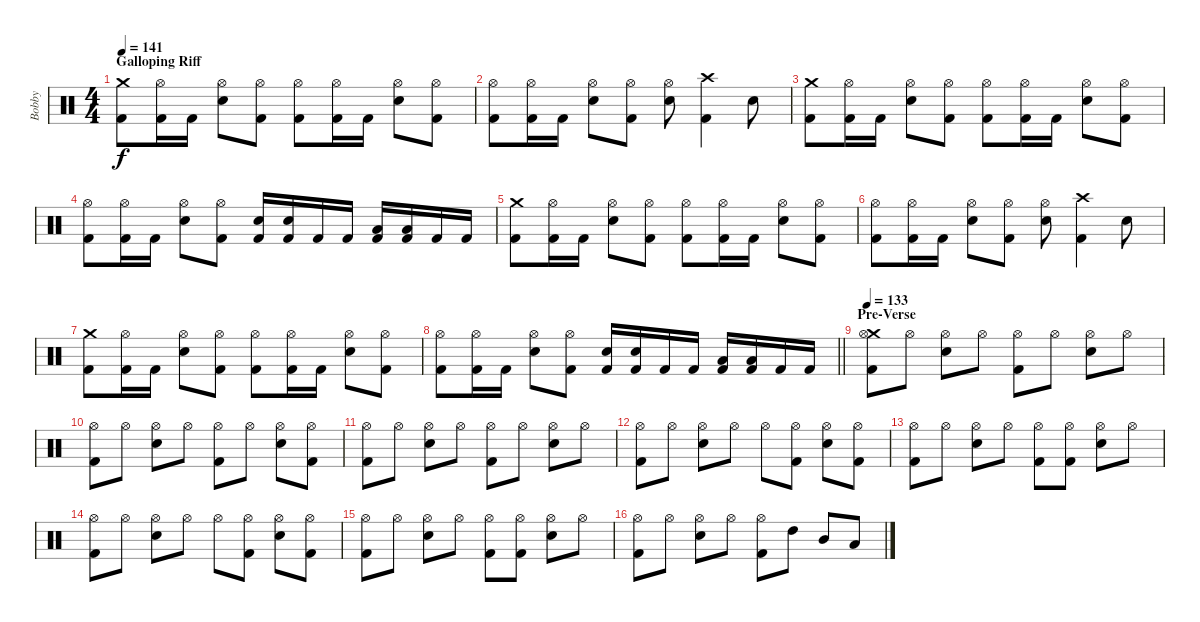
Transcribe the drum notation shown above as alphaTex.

\track ("Bobby" "Bobby") {instrument percussion}
\staff {score}
\articulation defaults
\ts (4 4)
\section ("" "Galloping Riff")
\tempo 140
\tempo 141
\clef neutral
\ks c
("Crash medium (hit)" "Kick (hit) 2").8{dy f} ("Hi-Hat (open)" "Kick (hit) 2").16 "Kick (hit) 2".16 ("Hi-Hat (open)" "Electric Snare (hit)").8 ("Hi-Hat (open)" "Kick (hit) 2").8 ("Hi-Hat (open)" "Kick (hit) 2").8 ("Hi-Hat (open)" "Kick (hit) 2").16 "Kick (hit) 2".16 ("Hi-Hat (open)" "Electric Snare (hit)").8 ("Hi-Hat (open)" "Kick (hit) 2").8 |
("Hi-Hat (open)" "Kick (hit) 2").8 ("Hi-Hat (open)" "Kick (hit) 2").16 "Kick (hit) 2".16 ("Hi-Hat (open)" "Electric Snare (hit)").8 ("Hi-Hat (open)" "Kick (hit) 2").8 ("Hi-Hat (open)" "Electric Snare (hit)").8 ("Crash high (hit)" "Kick (hit) 2").4 "Electric Snare (hit)".8 |
("Crash medium (hit)" "Kick (hit) 2").8 ("Hi-Hat (open)" "Kick (hit) 2").16 "Kick (hit) 2".16 ("Hi-Hat (open)" "Electric Snare (hit)").8 ("Hi-Hat (open)" "Kick (hit) 2").8 ("Hi-Hat (open)" "Kick (hit) 2").8 ("Hi-Hat (open)" "Kick (hit) 2").16 "Kick (hit) 2".16 ("Hi-Hat (open)" "Electric Snare (hit)").8 ("Hi-Hat (open)" "Kick (hit) 2").8 |
("Hi-Hat (open)" "Kick (hit) 2").8 ("Hi-Hat (open)" "Kick (hit) 2").16 "Kick (hit) 2".16 ("Hi-Hat (open)" "Electric Snare (hit)").8 ("Hi-Hat (open)" "Kick (hit) 2").8 ("Electric Snare (hit)" "Kick (hit) 2").16 ("Electric Snare (hit)" "Kick (hit) 2").16 "Kick (hit) 2".16 "Kick (hit) 2".16 ("Low Tom (hit)" "Kick (hit) 2").16 ("Low Tom (hit)" "Kick (hit) 2").16 "Kick (hit) 2".16 "Kick (hit) 2".16 |
("Crash medium (hit)" "Kick (hit) 2").8 ("Hi-Hat (open)" "Kick (hit) 2").16 "Kick (hit) 2".16 ("Hi-Hat (open)" "Electric Snare (hit)").8 ("Hi-Hat (open)" "Kick (hit) 2").8 ("Hi-Hat (open)" "Kick (hit) 2").8 ("Hi-Hat (open)" "Kick (hit) 2").16 "Kick (hit) 2".16 ("Hi-Hat (open)" "Electric Snare (hit)").8 ("Hi-Hat (open)" "Kick (hit) 2").8 |
("Hi-Hat (open)" "Kick (hit) 2").8 ("Hi-Hat (open)" "Kick (hit) 2").16 "Kick (hit) 2".16 ("Hi-Hat (open)" "Electric Snare (hit)").8 ("Hi-Hat (open)" "Kick (hit) 2").8 ("Hi-Hat (open)" "Electric Snare (hit)").8 ("Crash high (hit)" "Kick (hit) 2").4 "Electric Snare (hit)".8 |
("Crash medium (hit)" "Kick (hit) 2").8 ("Hi-Hat (open)" "Kick (hit) 2").16 "Kick (hit) 2".16 ("Hi-Hat (open)" "Electric Snare (hit)").8 ("Hi-Hat (open)" "Kick (hit) 2").8 ("Hi-Hat (open)" "Kick (hit) 2").8 ("Hi-Hat (open)" "Kick (hit) 2").16 "Kick (hit) 2".16 ("Hi-Hat (open)" "Electric Snare (hit)").8 ("Hi-Hat (open)" "Kick (hit) 2").8 |
\barLineRight lightlight
("Hi-Hat (open)" "Kick (hit) 2").8 ("Hi-Hat (open)" "Kick (hit) 2").16 "Kick (hit) 2".16 ("Hi-Hat (open)" "Electric Snare (hit)").8 ("Hi-Hat (open)" "Kick (hit) 2").8 ("Electric Snare (hit)" "Kick (hit) 2").16 ("Electric Snare (hit)" "Kick (hit) 2").16 "Kick (hit) 2".16 "Kick (hit) 2".16 ("Low Tom (hit)" "Kick (hit) 2").16 ("Low Tom (hit)" "Kick (hit) 2").16 "Kick (hit) 2".16 "Kick (hit) 2".16 |
\section ("" "Pre-Verse")
\tempo 130
\tempo 133
("Crash medium (hit)" "Hi-Hat (open)" "Kick (hit) 2").8 "Hi-Hat (open)".8 ("Hi-Hat (open)" "Electric Snare (hit)").8 "Hi-Hat (open)".8 ("Hi-Hat (open)" "Kick (hit) 2").8 "Hi-Hat (open)".8 ("Hi-Hat (open)" "Electric Snare (hit)").8 "Hi-Hat (open)".8 |
("Hi-Hat (open)" "Kick (hit) 2").8 "Hi-Hat (open)".8 ("Hi-Hat (open)" "Electric Snare (hit)").8 "Hi-Hat (open)".8 ("Hi-Hat (open)" "Kick (hit) 2").8 "Hi-Hat (open)".8 ("Hi-Hat (open)" "Electric Snare (hit)").8 ("Hi-Hat (open)" "Kick (hit) 2").8 |
("Hi-Hat (open)" "Kick (hit) 2").8 "Hi-Hat (open)".8 ("Hi-Hat (open)" "Electric Snare (hit)").8 "Hi-Hat (open)".8 ("Hi-Hat (open)" "Kick (hit) 2").8 "Hi-Hat (open)".8 ("Hi-Hat (open)" "Electric Snare (hit)").8 "Hi-Hat (open)".8 |
("Hi-Hat (open)" "Kick (hit) 2").8 "Hi-Hat (open)".8 ("Hi-Hat (open)" "Electric Snare (hit)").8 "Hi-Hat (open)".8 "Hi-Hat (open)".8 ("Hi-Hat (open)" "Kick (hit) 2").8 ("Hi-Hat (open)" "Electric Snare (hit)").8 ("Hi-Hat (open)" "Kick (hit) 2").8 |
("Hi-Hat (open)" "Kick (hit) 2").8 "Hi-Hat (open)".8 ("Hi-Hat (open)" "Electric Snare (hit)").8 "Hi-Hat (open)".8 ("Hi-Hat (open)" "Kick (hit) 2").8 ("Hi-Hat (open)" "Kick (hit) 2").8 ("Hi-Hat (open)" "Electric Snare (hit)").8 "Hi-Hat (open)".8 |
("Hi-Hat (open)" "Kick (hit) 2").8 "Hi-Hat (open)".8 ("Hi-Hat (open)" "Electric Snare (hit)").8 "Hi-Hat (open)".8 "Hi-Hat (open)".8 ("Hi-Hat (open)" "Kick (hit) 2").8 ("Hi-Hat (open)" "Electric Snare (hit)").8 ("Hi-Hat (open)" "Kick (hit) 2").8 |
("Hi-Hat (open)" "Kick (hit) 2").8 "Hi-Hat (open)".8 ("Hi-Hat (open)" "Electric Snare (hit)").8 "Hi-Hat (open)".8 ("Hi-Hat (open)" "Kick (hit) 2").8 ("Hi-Hat (open)" "Kick (hit) 2").8 ("Hi-Hat (open)" "Electric Snare (hit)").8 "Hi-Hat (open)".8 |
("Hi-Hat (open)" "Kick (hit) 2").8 "Hi-Hat (open)".8 ("Hi-Hat (open)" "Electric Snare (hit)").8 "Hi-Hat (open)".8 ("Hi-Hat (open)" "Kick (hit) 2").8 "High Tom (hit)".8 "Mid Tom (hit)".8 "Low Tom (hit)".8
